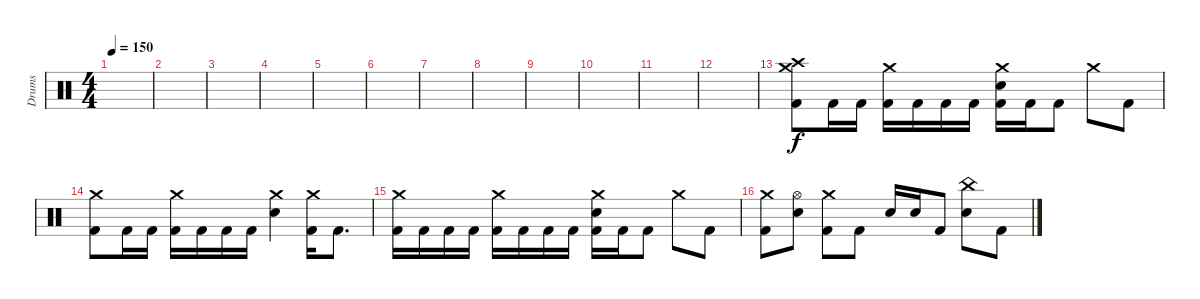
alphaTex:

\track ("Drums" "Drums") {instrument percussion}
\staff {score}
\articulation defaults
\ts (4 4)
\tempo 150
\clef neutral
\ks c
|
|
|
|
|
|
|
|
|
|
|
|
("Crash medium (hit)" "Crash high (hit)" "Kick (hit) 2").8 "Kick (hit) 2".16 "Kick (hit) 2".16 ("Crash medium (hit)" "Kick (hit) 2").16 "Kick (hit) 2".16 "Kick (hit) 2".16 "Kick (hit) 2".16 ("Crash medium (hit)" "Electric Snare (hit)" "Kick (hit) 2").16 "Kick (hit) 2".16 "Kick (hit) 2".8 "Crash medium (hit)".8 "Kick (hit) 2".8 |
("Crash medium (hit)" "Kick (hit) 2").8 "Kick (hit) 2".16 "Kick (hit) 2".16 ("Crash medium (hit)" "Kick (hit) 2").16 "Kick (hit) 2".16 "Kick (hit) 2".16 "Kick (hit) 2".16 ("Crash medium (hit)" "Electric Snare (hit)").4 ("Crash medium (hit)" "Kick (hit) 2").16 "Kick (hit) 2".8{d} |
("Crash medium (hit)" "Kick (hit) 2").16 "Kick (hit) 2".16 "Kick (hit) 2".16 "Kick (hit) 2".16 ("Crash medium (hit)" "Kick (hit) 2").16 "Kick (hit) 2".16 "Kick (hit) 2".16 "Kick (hit) 2".16 ("Crash medium (hit)" "Electric Snare (hit)" "Kick (hit) 2").16 "Kick (hit) 2".16 "Kick (hit) 2".8 "Crash medium (hit)".8 "Kick (hit) 2".8 |
("Crash medium (hit)" "Kick (hit) 2").8 ("Hi-Hat (open)" "Electric Snare (hit)").8 ("Crash medium (hit)" "Kick (hit) 2").8 "Kick (hit) 2".8 "Electric Snare (hit)".16 "Electric Snare (hit)".16 "Kick (hit) 2".8 ("China (hit)" "Electric Snare (hit)").8 "Kick (hit) 2".8
